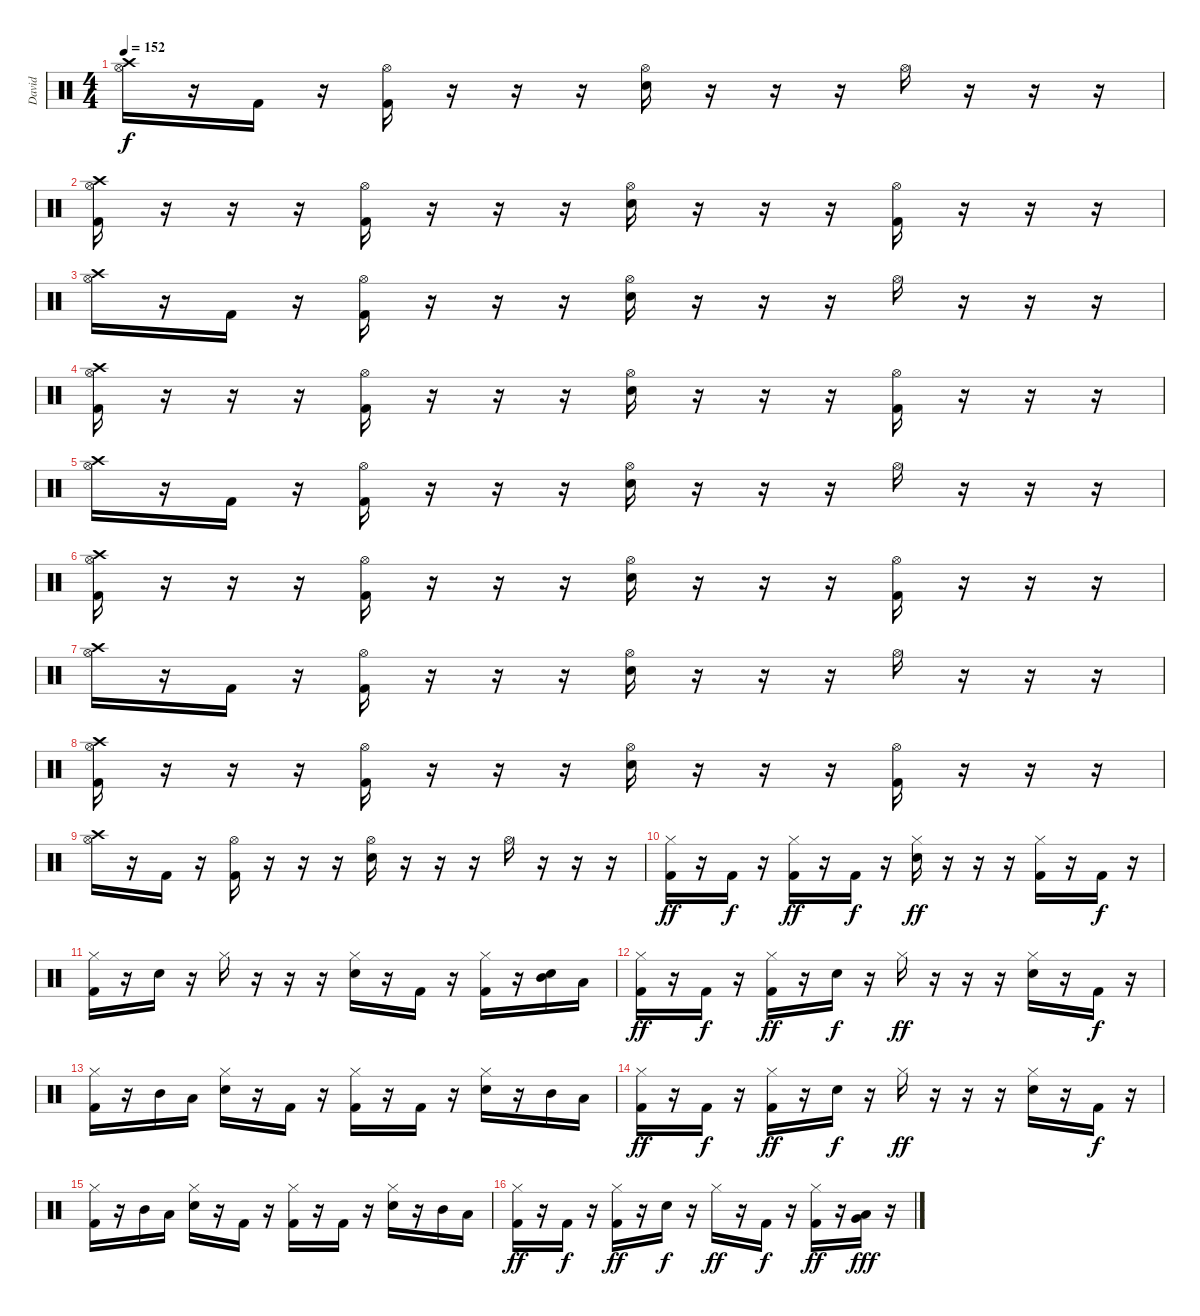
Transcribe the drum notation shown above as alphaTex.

\track ("David" "David") {instrument percussion}
\staff {score}
\articulation defaults
\ts (4 4)
\tempo 152
\clef neutral
\ks c
("Crash high (hit)" "Hi-Hat (open)").16{dy f} r.16 "Kick (hit) 2".16 r.16 ("Hi-Hat (open)" "Kick (hit) 2").16 r.16 r.16 r.16 ("Hi-Hat (open)" "Electric Snare (hit)").16 r.16 r.16 r.16 "Hi-Hat (open)".16 r.16 r.16 r.16 |
("Crash high (hit)" "Hi-Hat (open)" "Kick (hit) 2").16 r.16 r.16 r.16 ("Hi-Hat (open)" "Kick (hit) 2").16 r.16 r.16 r.16 ("Hi-Hat (open)" "Electric Snare (hit)").16 r.16 r.16 r.16 ("Hi-Hat (open)" "Kick (hit) 2").16 r.16 r.16 r.16 |
("Crash high (hit)" "Hi-Hat (open)").16 r.16 "Kick (hit) 2".16 r.16 ("Hi-Hat (open)" "Kick (hit) 2").16 r.16 r.16 r.16 ("Hi-Hat (open)" "Electric Snare (hit)").16 r.16 r.16 r.16 "Hi-Hat (open)".16 r.16 r.16 r.16 |
("Crash high (hit)" "Hi-Hat (open)" "Kick (hit) 2").16 r.16 r.16 r.16 ("Hi-Hat (open)" "Kick (hit) 2").16 r.16 r.16 r.16 ("Hi-Hat (open)" "Electric Snare (hit)").16 r.16 r.16 r.16 ("Hi-Hat (open)" "Kick (hit) 2").16 r.16 r.16 r.16 |
("Crash high (hit)" "Hi-Hat (open)").16 r.16 "Kick (hit) 2".16 r.16 ("Hi-Hat (open)" "Kick (hit) 2").16 r.16 r.16 r.16 ("Hi-Hat (open)" "Electric Snare (hit)").16 r.16 r.16 r.16 "Hi-Hat (open)".16 r.16 r.16 r.16 |
("Crash high (hit)" "Hi-Hat (open)" "Kick (hit) 2").16 r.16 r.16 r.16 ("Hi-Hat (open)" "Kick (hit) 2").16 r.16 r.16 r.16 ("Hi-Hat (open)" "Electric Snare (hit)").16 r.16 r.16 r.16 ("Hi-Hat (open)" "Kick (hit) 2").16 r.16 r.16 r.16 |
("Crash high (hit)" "Hi-Hat (open)").16 r.16 "Kick (hit) 2".16 r.16 ("Hi-Hat (open)" "Kick (hit) 2").16 r.16 r.16 r.16 ("Hi-Hat (open)" "Electric Snare (hit)").16 r.16 r.16 r.16 "Hi-Hat (open)".16 r.16 r.16 r.16 |
("Crash high (hit)" "Hi-Hat (open)" "Kick (hit) 2").16 r.16 r.16 r.16 ("Hi-Hat (open)" "Kick (hit) 2").16 r.16 r.16 r.16 ("Hi-Hat (open)" "Electric Snare (hit)").16 r.16 r.16 r.16 ("Hi-Hat (open)" "Kick (hit) 2").16 r.16 r.16 r.16 |
("Crash high (hit)" "Hi-Hat (open)").16 r.16 "Kick (hit) 2".16 r.16 ("Hi-Hat (open)" "Kick (hit) 2").16 r.16 r.16 r.16 ("Hi-Hat (open)" "Electric Snare (hit)").16 r.16 r.16 r.16 "Hi-Hat (open)".16 r.16 r.16 r.16 |
("Hi-Hat (closed)" "Kick (hit) 2").16{dy ff} r.16 "Kick (hit) 2".16{dy f} r.16 ("Hi-Hat (closed)" "Kick (hit) 2").16{dy ff} r.16 "Kick (hit) 2".16{dy f} r.16 ("Hi-Hat (closed)" "Electric Snare (hit)").16{dy ff} r.16 r.16 r.16 ("Hi-Hat (closed)" "Kick (hit) 2").16 r.16 "Kick (hit) 2".16{dy f} r.16 |
("Hi-Hat (closed)" "Kick (hit) 2").16 r.16 "Electric Snare (hit)".16 r.16 "Hi-Hat (closed)".16 r.16 r.16 r.16 ("Hi-Hat (closed)" "Electric Snare (hit)").16 r.16 "Kick (hit) 2".16 r.16 ("Hi-Hat (closed)" "Kick (hit) 2").16 r.16 ("Mid Tom (hit)" "Electric Snare (hit)").16 "Low Tom (hit)".16 |
("Hi-Hat (closed)" "Kick (hit) 2").16{dy ff} r.16 "Kick (hit) 2".16{dy f} r.16 ("Hi-Hat (closed)" "Kick (hit) 2").16{dy ff} r.16 "Electric Snare (hit)".16{dy f} r.16 "Hi-Hat (closed)".16{dy ff} r.16 r.16 r.16 ("Hi-Hat (closed)" "Electric Snare (hit)").16 r.16 "Kick (hit) 2".16{dy f} r.16 |
("Hi-Hat (closed)" "Kick (hit) 2").16 r.16 "Mid Tom (hit)".16 "Low Tom (hit)".16 ("Hi-Hat (closed)" "Electric Snare (hit)").16 r.16 "Kick (hit) 2".16 r.16 ("Hi-Hat (closed)" "Kick (hit) 2").16 r.16 "Kick (hit) 2".16 r.16 ("Hi-Hat (closed)" "Electric Snare (hit)").16 r.16 "Mid Tom (hit)".16 "Low Tom (hit)".16 |
("Hi-Hat (closed)" "Kick (hit) 2").16{dy ff} r.16 "Kick (hit) 2".16{dy f} r.16 ("Hi-Hat (closed)" "Kick (hit) 2").16{dy ff} r.16 "Electric Snare (hit)".16{dy f} r.16 "Hi-Hat (closed)".16{dy ff} r.16 r.16 r.16 ("Hi-Hat (closed)" "Electric Snare (hit)").16 r.16 "Kick (hit) 2".16{dy f} r.16 |
("Hi-Hat (closed)" "Kick (hit) 2").16 r.16 "Mid Tom (hit)".16 "Low Tom (hit)".16 ("Hi-Hat (closed)" "Electric Snare (hit)").16 r.16 "Kick (hit) 2".16 r.16 ("Hi-Hat (closed)" "Kick (hit) 2").16 r.16 "Kick (hit) 2".16 r.16 ("Hi-Hat (closed)" "Electric Snare (hit)").16 r.16 "Mid Tom (hit)".16 "Low Tom (hit)".16 |
("Hi-Hat (closed)" "Kick (hit) 2").16{dy ff} r.16 "Kick (hit) 2".16{dy f} r.16 ("Hi-Hat (closed)" "Kick (hit) 2").16{dy ff} r.16 "Electric Snare (hit)".16{dy f} r.16 "Hi-Hat (closed)".16{dy ff} r.16 "Kick (hit) 2".16{dy f} r.16 ("Hi-Hat (closed)" "Kick (hit) 2").16{dy ff} r.16 ("Low Floor Tom (hit)" "Very Low Tom (hit)").16{dy fff} r.16
